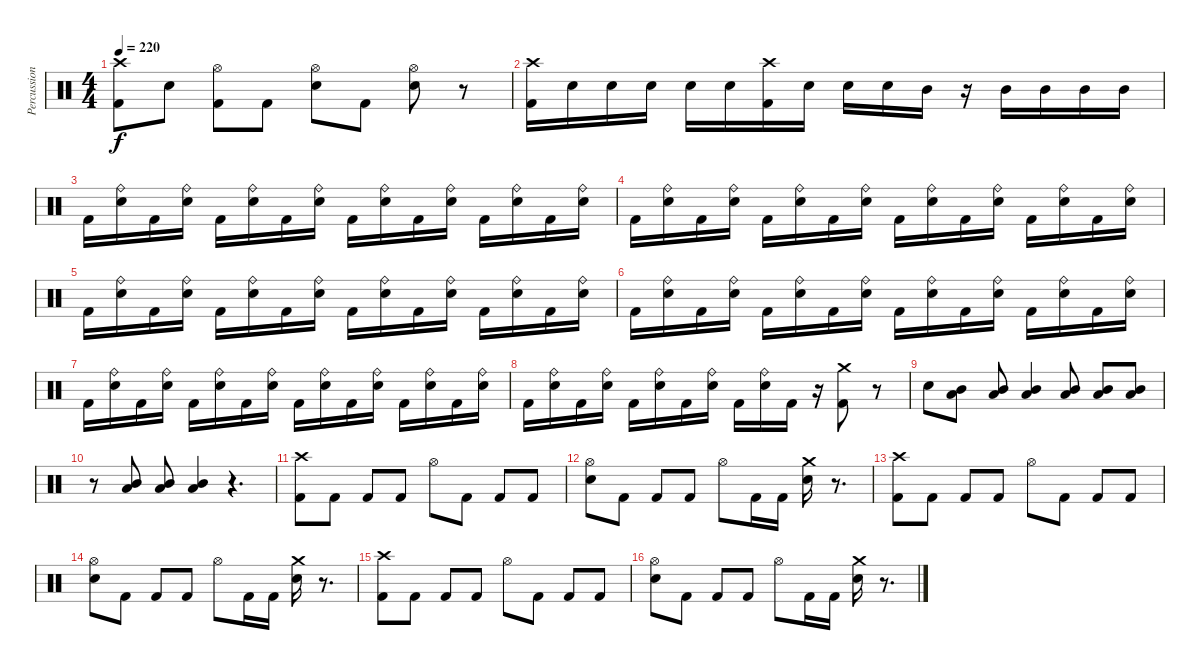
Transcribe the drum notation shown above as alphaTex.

\track ("Percussion (Dan Wilding)" "Percussion") {instrument percussion}
\staff {score}
\articulation defaults
\ts (4 4)
\tempo 220
\clef neutral
\ks c
("Crash high (hit)" "Kick (hit) 2").8{dy f} "Electric Snare (hit)".8 ("Hi-Hat (open)" "Kick (hit) 2").8 "Kick (hit) 2".8 ("Hi-Hat (open)" "Electric Snare (hit)").8 "Kick (hit) 2".8 ("Hi-Hat (open)" "Electric Snare (hit)").8 r.8 |
("Crash high (hit)" "Kick (hit) 2").16 "Electric Snare (hit)".16 "Electric Snare (hit)".16 "Electric Snare (hit)".16 "Electric Snare (hit)".16 "Electric Snare (hit)".16 ("Crash high (hit)" "Kick (hit) 2").16 "Electric Snare (hit)".16 "Electric Snare (hit)".16 "Electric Snare (hit)".16 "Mid Tom (hit)".16 r.16 "Mid Tom (hit)".16 "Mid Tom (hit)".16 "Mid Tom (hit)".16 "Mid Tom (hit)".16 |
"Kick (hit) 2".16 ("Ride (bell)" "Electric Snare (hit)").16 "Kick (hit) 2".16 ("Ride (bell)" "Electric Snare (hit)").16 "Kick (hit) 2".16 ("Ride (bell)" "Electric Snare (hit)").16 "Kick (hit) 2".16 ("Ride (bell)" "Electric Snare (hit)").16 "Kick (hit) 2".16 ("Ride (bell)" "Electric Snare (hit)").16 "Kick (hit) 2".16 ("Ride (bell)" "Electric Snare (hit)").16 "Kick (hit) 2".16 ("Ride (bell)" "Electric Snare (hit)").16 "Kick (hit) 2".16 ("Ride (bell)" "Electric Snare (hit)").16 |
"Kick (hit) 2".16 ("Ride (bell)" "Electric Snare (hit)").16 "Kick (hit) 2".16 ("Ride (bell)" "Electric Snare (hit)").16 "Kick (hit) 2".16 ("Ride (bell)" "Electric Snare (hit)").16 "Kick (hit) 2".16 ("Ride (bell)" "Electric Snare (hit)").16 "Kick (hit) 2".16 ("Ride (bell)" "Electric Snare (hit)").16 "Kick (hit) 2".16 ("Ride (bell)" "Electric Snare (hit)").16 "Kick (hit) 2".16 ("Ride (bell)" "Electric Snare (hit)").16 "Kick (hit) 2".16 ("Ride (bell)" "Electric Snare (hit)").16 |
"Kick (hit) 2".16 ("Ride (bell)" "Electric Snare (hit)").16 "Kick (hit) 2".16 ("Ride (bell)" "Electric Snare (hit)").16 "Kick (hit) 2".16 ("Ride (bell)" "Electric Snare (hit)").16 "Kick (hit) 2".16 ("Ride (bell)" "Electric Snare (hit)").16 "Kick (hit) 2".16 ("Ride (bell)" "Electric Snare (hit)").16 "Kick (hit) 2".16 ("Ride (bell)" "Electric Snare (hit)").16 "Kick (hit) 2".16 ("Ride (bell)" "Electric Snare (hit)").16 "Kick (hit) 2".16 ("Ride (bell)" "Electric Snare (hit)").16 |
"Kick (hit) 2".16 ("Ride (bell)" "Electric Snare (hit)").16 "Kick (hit) 2".16 ("Ride (bell)" "Electric Snare (hit)").16 "Kick (hit) 2".16 ("Ride (bell)" "Electric Snare (hit)").16 "Kick (hit) 2".16 ("Ride (bell)" "Electric Snare (hit)").16 "Kick (hit) 2".16 ("Ride (bell)" "Electric Snare (hit)").16 "Kick (hit) 2".16 ("Ride (bell)" "Electric Snare (hit)").16 "Kick (hit) 2".16 ("Ride (bell)" "Electric Snare (hit)").16 "Kick (hit) 2".16 ("Ride (bell)" "Electric Snare (hit)").16 |
"Kick (hit) 2".16 ("Ride (bell)" "Electric Snare (hit)").16 "Kick (hit) 2".16 ("Ride (bell)" "Electric Snare (hit)").16 "Kick (hit) 2".16 ("Ride (bell)" "Electric Snare (hit)").16 "Kick (hit) 2".16 ("Ride (bell)" "Electric Snare (hit)").16 "Kick (hit) 2".16 ("Ride (bell)" "Electric Snare (hit)").16 "Kick (hit) 2".16 ("Ride (bell)" "Electric Snare (hit)").16 "Kick (hit) 2".16 ("Ride (bell)" "Electric Snare (hit)").16 "Kick (hit) 2".16 ("Ride (bell)" "Electric Snare (hit)").16 |
"Kick (hit) 2".16 ("Ride (bell)" "Electric Snare (hit)").16 "Kick (hit) 2".16 ("Ride (bell)" "Electric Snare (hit)").16 "Kick (hit) 2".16 ("Ride (bell)" "Electric Snare (hit)").16 "Kick (hit) 2".16 ("Ride (bell)" "Electric Snare (hit)").16 "Kick (hit) 2".16 ("Ride (bell)" "Electric Snare (hit)").16 "Kick (hit) 2".16 r.16 ("Crash medium (hit)" "Kick (hit) 2").8 r.8 |
"Electric Snare (hit)".8 ("Mid Tom (hit)" "Low Tom (hit)").8 ("Mid Tom (hit)" "Low Tom (hit)").8 ("Mid Tom (hit)" "Low Tom (hit)").4 ("Mid Tom (hit)" "Low Tom (hit)").8 ("Mid Tom (hit)" "Low Tom (hit)").8 ("Mid Tom (hit)" "Low Tom (hit)").8 |
r.8 ("Mid Tom (hit)" "Low Tom (hit)").8 ("Mid Tom (hit)" "Low Tom (hit)").8 ("Mid Tom (hit)" "Low Tom (hit)").4 r.4{d} |
("Crash high (hit)" "Kick (hit) 2").8 "Kick (hit) 2".8 "Kick (hit) 2".8 "Kick (hit) 2".8 "Hi-Hat (open)".8 "Kick (hit) 2".8 "Kick (hit) 2".8 "Kick (hit) 2".8 |
("Hi-Hat (open)" "Electric Snare (hit)").8 "Kick (hit) 2".8 "Kick (hit) 2".8 "Kick (hit) 2".8 "Hi-Hat (open)".8 "Kick (hit) 2".16 "Kick (hit) 2".16 ("Crash medium (hit)" "Electric Snare (hit)").16 r.8{d} |
("Crash high (hit)" "Kick (hit) 2").8 "Kick (hit) 2".8 "Kick (hit) 2".8 "Kick (hit) 2".8 "Hi-Hat (open)".8 "Kick (hit) 2".8 "Kick (hit) 2".8 "Kick (hit) 2".8 |
("Hi-Hat (open)" "Electric Snare (hit)").8 "Kick (hit) 2".8 "Kick (hit) 2".8 "Kick (hit) 2".8 "Hi-Hat (open)".8 "Kick (hit) 2".16 "Kick (hit) 2".16 ("Crash medium (hit)" "Electric Snare (hit)").16 r.8{d} |
("Crash high (hit)" "Kick (hit) 2").8 "Kick (hit) 2".8 "Kick (hit) 2".8 "Kick (hit) 2".8 "Hi-Hat (open)".8 "Kick (hit) 2".8 "Kick (hit) 2".8 "Kick (hit) 2".8 |
("Hi-Hat (open)" "Electric Snare (hit)").8 "Kick (hit) 2".8 "Kick (hit) 2".8 "Kick (hit) 2".8 "Hi-Hat (open)".8 "Kick (hit) 2".16 "Kick (hit) 2".16 ("Crash medium (hit)" "Electric Snare (hit)").16 r.8{d}
